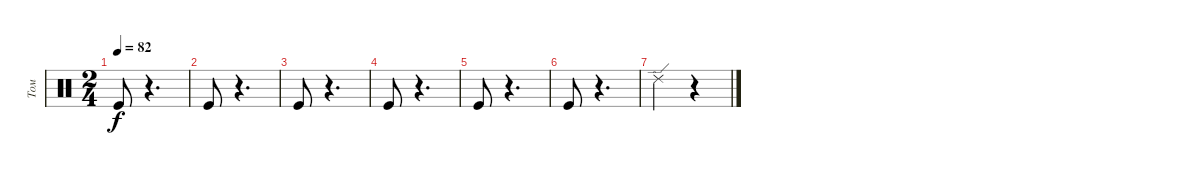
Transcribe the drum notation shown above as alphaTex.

\track ("Том" "Том") {instrument percussion}
\staff {score}
\articulation defaults
\ts (2 4)
\tempo 82
\clef neutral
\ks c "Kick (hit)".8{dy f}
r.4{d} |
"Kick (hit)".8 r.4{d} |
"Kick (hit)".8 r.4{d} |
"Kick (hit)".8 r.4{d} |
"Kick (hit)".8 r.4{d} |
"Kick (hit)".8 r.4{d} |
"Ride (edge) 2".4 r.4
